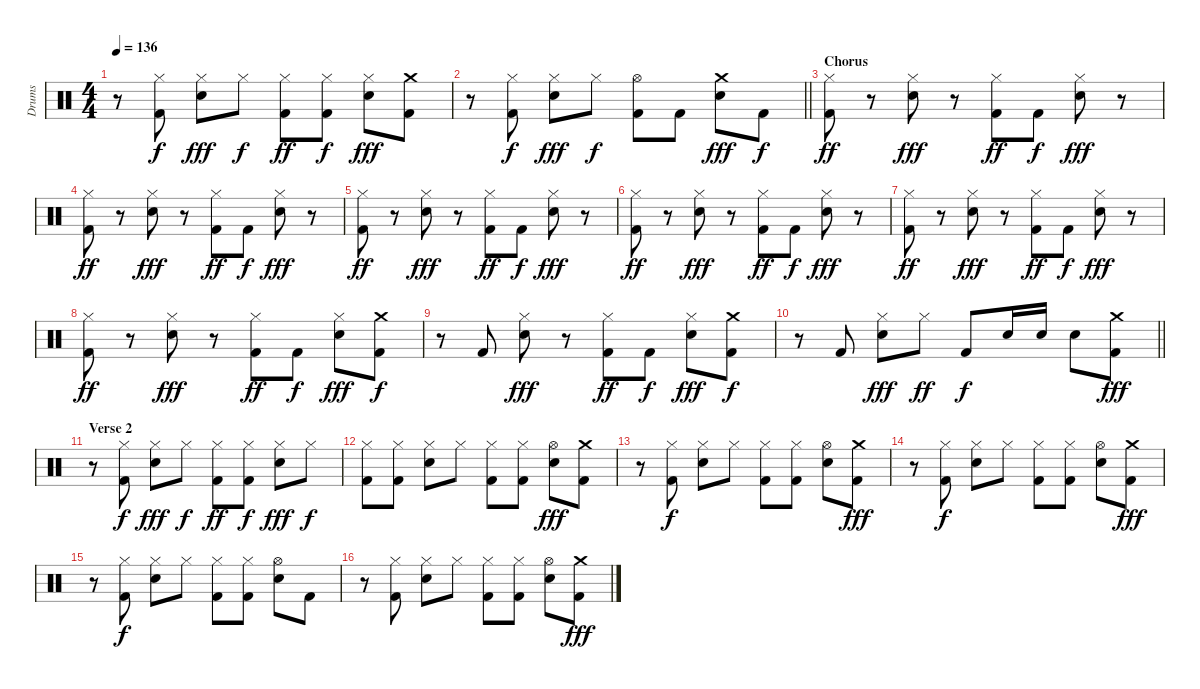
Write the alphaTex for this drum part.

\track ("Drums" "Drums") {instrument percussion}
\staff {score}
\articulation defaults
\ts (4 4)
\tempo 136
\clef neutral
\ks c
r.8{dy fff} ("Hi-Hat (closed)" "Kick (hit) 2").8{dy f} ("Hi-Hat (closed)" "Snare (hit) 2").8{dy fff} "Hi-Hat (closed)".8{dy f} ("Hi-Hat (closed)" "Kick (hit) 2").8{dy ff} ("Hi-Hat (closed)" "Kick (hit) 2").8{dy f} ("Hi-Hat (closed)" "Snare (hit) 2").8{dy fff} ("Crash medium (hit)" "Kick (hit) 2").8 |
\barLineRight lightlight
r.8 ("Hi-Hat (closed)" "Kick (hit) 2").8{dy f} ("Hi-Hat (closed)" "Snare (hit) 2").8{dy fff} "Hi-Hat (closed)".8{dy f} ("Hi-Hat (open)" "Kick (hit) 2").8 "Kick (hit) 2".8 ("Crash medium (hit)" "Snare (hit) 2").8{dy fff} "Kick (hit) 2".8{dy f} |
\section ("" "Chorus")
("Hi-Hat (closed)" "Kick (hit) 2").8{dy ff} r.8 ("Hi-Hat (closed)" "Snare (hit) 2").8{dy fff} r.8 ("Hi-Hat (closed)" "Kick (hit) 2").8{dy ff} "Kick (hit) 2".8{dy f} ("Hi-Hat (closed)" "Snare (hit) 2").8{dy fff} r.8 |
("Hi-Hat (closed)" "Kick (hit) 2").8{dy ff} r.8 ("Hi-Hat (closed)" "Snare (hit) 2").8{dy fff} r.8 ("Hi-Hat (closed)" "Kick (hit) 2").8{dy ff} "Kick (hit) 2".8{dy f} ("Hi-Hat (closed)" "Snare (hit) 2").8{dy fff} r.8 |
("Hi-Hat (closed)" "Kick (hit) 2").8{dy ff} r.8 ("Hi-Hat (closed)" "Snare (hit) 2").8{dy fff} r.8 ("Hi-Hat (closed)" "Kick (hit) 2").8{dy ff} "Kick (hit) 2".8{dy f} ("Hi-Hat (closed)" "Snare (hit) 2").8{dy fff} r.8 |
("Hi-Hat (closed)" "Kick (hit) 2").8{dy ff} r.8 ("Hi-Hat (closed)" "Snare (hit) 2").8{dy fff} r.8 ("Hi-Hat (closed)" "Kick (hit) 2").8{dy ff} "Kick (hit) 2".8{dy f} ("Hi-Hat (closed)" "Snare (hit) 2").8{dy fff} r.8 |
("Hi-Hat (closed)" "Kick (hit) 2").8{dy ff} r.8 ("Hi-Hat (closed)" "Snare (hit) 2").8{dy fff} r.8 ("Hi-Hat (closed)" "Kick (hit) 2").8{dy ff} "Kick (hit) 2".8{dy f} ("Hi-Hat (closed)" "Snare (hit) 2").8{dy fff} r.8 |
("Hi-Hat (closed)" "Kick (hit) 2").8{dy ff} r.8 ("Hi-Hat (closed)" "Snare (hit) 2").8{dy fff} r.8 ("Hi-Hat (closed)" "Kick (hit) 2").8{dy ff} "Kick (hit) 2".8{dy f} ("Hi-Hat (closed)" "Snare (hit) 2").8{dy fff} ("Crash medium (hit)" "Kick (hit) 2").8{dy f} |
r.8 "Kick (hit) 2".8 ("Hi-Hat (closed)" "Snare (hit) 2").8{dy fff} r.8 ("Hi-Hat (closed)" "Kick (hit) 2").8{dy ff} "Kick (hit) 2".8{dy f} ("Hi-Hat (closed)" "Snare (hit) 2").8{dy fff} ("Crash medium (hit)" "Kick (hit) 2").8{dy f} |
\barLineRight lightlight
r.8 "Kick (hit) 2".8 ("Hi-Hat (closed)" "Snare (hit) 2").8{dy fff} "Hi-Hat (closed)".8{dy ff} "Kick (hit) 2".8{dy f} "Snare (hit) 2".16 "Snare (hit) 2".16 "Snare (hit) 2".8 ("Crash medium (hit)" "Kick (hit) 2").8{dy fff} |
\section ("" "Verse 2")
r.8 ("Hi-Hat (closed)" "Kick (hit) 2").8{dy f} ("Hi-Hat (closed)" "Snare (hit) 2").8{dy fff} "Hi-Hat (closed)".8{dy f} ("Hi-Hat (closed)" "Kick (hit) 2").8{dy ff} ("Hi-Hat (closed)" "Kick (hit) 2").8{dy f} ("Hi-Hat (closed)" "Snare (hit) 2").8{dy fff} "Hi-Hat (closed)".8{dy f} |
("Hi-Hat (closed)" "Kick (hit) 2").8 ("Hi-Hat (closed)" "Kick (hit) 2").8 ("Hi-Hat (closed)" "Snare (hit) 2").8 "Hi-Hat (closed)".8 ("Hi-Hat (closed)" "Kick (hit) 2").8 ("Hi-Hat (closed)" "Kick (hit) 2").8 ("Hi-Hat (open)" "Snare (hit) 2").8{dy fff} ("Crash medium (hit)" "Kick (hit) 2").8 |
r.8 ("Hi-Hat (closed)" "Kick (hit) 2").8{dy f} ("Hi-Hat (closed)" "Snare (hit) 2").8 "Hi-Hat (closed)".8 ("Hi-Hat (closed)" "Kick (hit) 2").8 ("Hi-Hat (closed)" "Kick (hit) 2").8 ("Hi-Hat (open)" "Snare (hit) 2").8 ("Crash medium (hit)" "Kick (hit) 2").8{dy fff} |
r.8 ("Hi-Hat (closed)" "Kick (hit) 2").8{dy f} ("Hi-Hat (closed)" "Snare (hit) 2").8 "Hi-Hat (closed)".8 ("Hi-Hat (closed)" "Kick (hit) 2").8 ("Hi-Hat (closed)" "Kick (hit) 2").8 ("Hi-Hat (open)" "Snare (hit) 2").8 ("Crash medium (hit)" "Kick (hit) 2").8{dy fff} |
r.8 ("Hi-Hat (closed)" "Kick (hit) 2").8{dy f} ("Hi-Hat (closed)" "Snare (hit) 2").8 "Hi-Hat (closed)".8 ("Hi-Hat (closed)" "Kick (hit) 2").8 ("Hi-Hat (closed)" "Kick (hit) 2").8 ("Hi-Hat (open)" "Snare (hit) 2").8 "Kick (hit) 2".8 |
r.8 ("Hi-Hat (closed)" "Kick (hit) 2").8 ("Hi-Hat (closed)" "Snare (hit) 2").8 "Hi-Hat (closed)".8 ("Hi-Hat (closed)" "Kick (hit) 2").8 ("Hi-Hat (closed)" "Kick (hit) 2").8 ("Hi-Hat (open)" "Snare (hit) 2").8 ("Crash medium (hit)" "Kick (hit) 2").8{dy fff}
